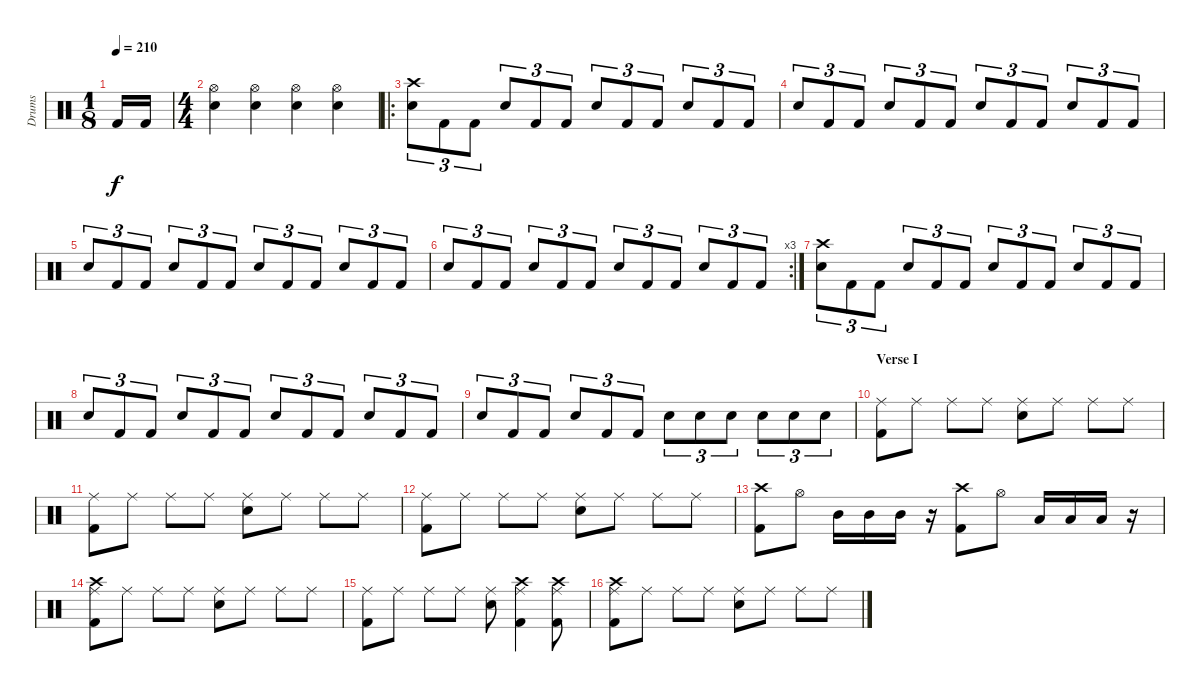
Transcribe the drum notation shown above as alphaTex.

\track ("Drums" "Drums") {instrument percussion}
\staff {score}
\articulation defaults
\ts (1 8)
\tempo 210
\clef neutral
\ks c "Kick (hit) 2".16{dy f} "Kick (hit) 2".16
|
\ts (4 4)
("Hi-Hat (open)" "Electric Snare (hit)").4 ("Hi-Hat (open)" "Electric Snare (hit)").4 ("Hi-Hat (open)" "Electric Snare (hit)").4 ("Hi-Hat (open)" "Electric Snare (hit)").4 |
\ro
("Crash high (hit)" "Electric Snare (hit)").8{tu (3 2)} "Kick (hit) 2".8{tu (3 2)} "Kick (hit) 2".8{tu (3 2)} "Electric Snare (hit)".8{tu (3 2)} "Kick (hit) 2".8{tu (3 2)} "Kick (hit) 2".8{tu (3 2)} "Electric Snare (hit)".8{tu (3 2)} "Kick (hit) 2".8{tu (3 2)} "Kick (hit) 2".8{tu (3 2)} "Electric Snare (hit)".8{tu (3 2)} "Kick (hit) 2".8{tu (3 2)} "Kick (hit) 2".8{tu (3 2)} |
"Electric Snare (hit)".8{tu (3 2)} "Kick (hit) 2".8{tu (3 2)} "Kick (hit) 2".8{tu (3 2)} "Electric Snare (hit)".8{tu (3 2)} "Kick (hit) 2".8{tu (3 2)} "Kick (hit) 2".8{tu (3 2)} "Electric Snare (hit)".8{tu (3 2)} "Kick (hit) 2".8{tu (3 2)} "Kick (hit) 2".8{tu (3 2)} "Electric Snare (hit)".8{tu (3 2)} "Kick (hit) 2".8{tu (3 2)} "Kick (hit) 2".8{tu (3 2)} |
"Electric Snare (hit)".8{tu (3 2)} "Kick (hit) 2".8{tu (3 2)} "Kick (hit) 2".8{tu (3 2)} "Electric Snare (hit)".8{tu (3 2)} "Kick (hit) 2".8{tu (3 2)} "Kick (hit) 2".8{tu (3 2)} "Electric Snare (hit)".8{tu (3 2)} "Kick (hit) 2".8{tu (3 2)} "Kick (hit) 2".8{tu (3 2)} "Electric Snare (hit)".8{tu (3 2)} "Kick (hit) 2".8{tu (3 2)} "Kick (hit) 2".8{tu (3 2)} |
\rc 3 "Electric Snare (hit)".8{tu (3 2)} "Kick (hit) 2".8{tu (3 2)} "Kick (hit) 2".8{tu (3 2)} "Electric Snare (hit)".8{tu (3 2)} "Kick (hit) 2".8{tu (3 2)} "Kick (hit) 2".8{tu (3 2)} "Electric Snare (hit)".8{tu (3 2)} "Kick (hit) 2".8{tu (3 2)} "Kick (hit) 2".8{tu (3 2)} "Electric Snare (hit)".8{tu (3 2)} "Kick (hit) 2".8{tu (3 2)} "Kick (hit) 2".8{tu (3 2)}
|
("Crash high (hit)" "Electric Snare (hit)").8{tu (3 2)} "Kick (hit) 2".8{tu (3 2)} "Kick (hit) 2".8{tu (3 2)} "Electric Snare (hit)".8{tu (3 2)} "Kick (hit) 2".8{tu (3 2)} "Kick (hit) 2".8{tu (3 2)} "Electric Snare (hit)".8{tu (3 2)} "Kick (hit) 2".8{tu (3 2)} "Kick (hit) 2".8{tu (3 2)} "Electric Snare (hit)".8{tu (3 2)} "Kick (hit) 2".8{tu (3 2)} "Kick (hit) 2".8{tu (3 2)} |
"Electric Snare (hit)".8{tu (3 2)} "Kick (hit) 2".8{tu (3 2)} "Kick (hit) 2".8{tu (3 2)} "Electric Snare (hit)".8{tu (3 2)} "Kick (hit) 2".8{tu (3 2)} "Kick (hit) 2".8{tu (3 2)} "Electric Snare (hit)".8{tu (3 2)} "Kick (hit) 2".8{tu (3 2)} "Kick (hit) 2".8{tu (3 2)} "Electric Snare (hit)".8{tu (3 2)} "Kick (hit) 2".8{tu (3 2)} "Kick (hit) 2".8{tu (3 2)} |
"Electric Snare (hit)".8{tu (3 2)} "Kick (hit) 2".8{tu (3 2)} "Kick (hit) 2".8{tu (3 2)} "Electric Snare (hit)".8{tu (3 2)} "Kick (hit) 2".8{tu (3 2)} "Kick (hit) 2".8{tu (3 2)} "Electric Snare (hit)".8{tu (3 2)} "Electric Snare (hit)".8{tu (3 2)} "Electric Snare (hit)".8{tu (3 2)} "Electric Snare (hit)".8{tu (3 2)} "Electric Snare (hit)".8{tu (3 2)} "Electric Snare (hit)".8{tu (3 2)} |
\section ("" "Verse I")
("Ride (middle)" "Kick (hit) 2").8 "Ride (middle)".8 "Ride (middle)".8 "Ride (middle)".8 ("Ride (middle)" "Electric Snare (hit)").8 "Ride (middle)".8 "Ride (middle)".8 "Ride (middle)".8 |
("Ride (middle)" "Kick (hit) 2").8 "Ride (middle)".8 "Ride (middle)".8 "Ride (middle)".8 ("Ride (middle)" "Electric Snare (hit)").8 "Ride (middle)".8 "Ride (middle)".8 "Ride (middle)".8 |
("Ride (middle)" "Kick (hit) 2").8 "Ride (middle)".8 "Ride (middle)".8 "Ride (middle)".8 ("Ride (middle)" "Electric Snare (hit)").8 "Ride (middle)".8 "Ride (middle)".8 "Ride (middle)".8 |
("Crash high (hit)" "Kick (hit) 2").8 "Hi-Hat (open)".8 "Mid Tom (hit)".16 "Mid Tom (hit)".16 "Mid Tom (hit)".16 r.16 ("Crash high (hit)" "Kick (hit) 2").8 "Hi-Hat (open)".8 "Low Tom (hit)".16 "Low Tom (hit)".16 "Low Floor Tom (hit)".16 r.16 |
("Crash high (hit)" "Ride (middle)" "Kick (hit) 2").8 "Ride (middle)".8 "Ride (middle)".8 "Ride (middle)".8 ("Ride (middle)" "Electric Snare (hit)").8 "Ride (middle)".8 "Ride (middle)".8 "Ride (middle)".8 |
("Ride (middle)" "Kick (hit) 2").8 "Ride (middle)".8 "Ride (middle)".8 "Ride (middle)".8 ("Ride (middle)" "Electric Snare (hit)").8 ("Crash high (hit)" "Ride (middle)" "Kick (hit) 2").4 ("Crash high (hit)" "Ride (middle)" "Kick (hit) 2").8 |
("Crash high (hit)" "Ride (middle)" "Kick (hit) 2").8 "Ride (middle)".8 "Ride (middle)".8 "Ride (middle)".8 ("Ride (middle)" "Electric Snare (hit)").8 "Ride (middle)".8 "Ride (middle)".8 "Ride (middle)".8
